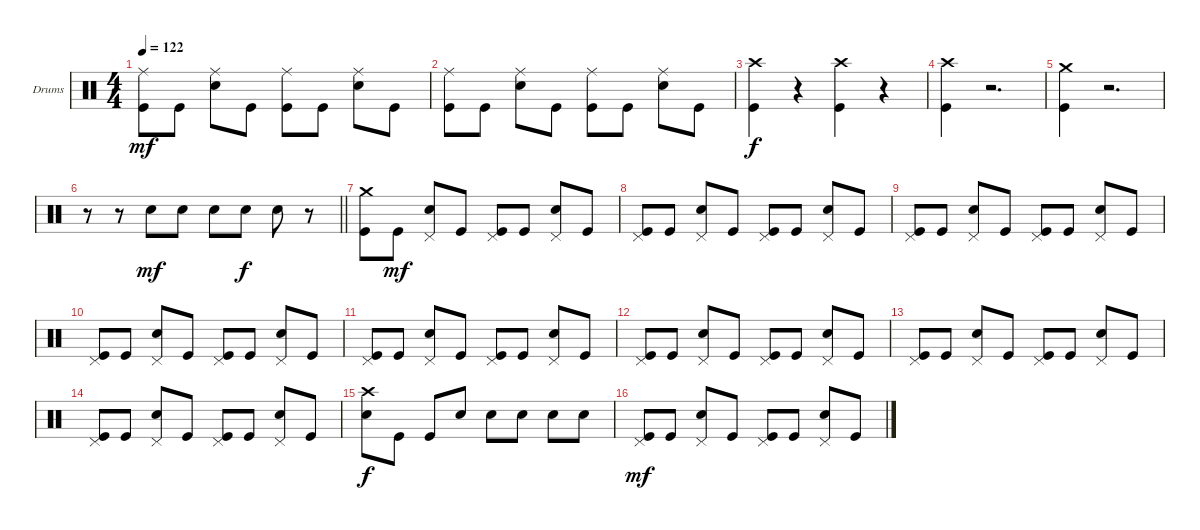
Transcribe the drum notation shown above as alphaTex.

\defaultSystemsLayout 4
\bracketExtendMode groupsimilarinstruments
\firstSystemTrackNameOrientation horizontal
\otherSystemsTrackNameOrientation horizontal
\track ("Drum" "Drums") {instrument percussion}
\staff {score}
\articulation defaults
\ts (4 4)
\tempo 122
\clef neutral
\ks c
("Kick (hit)" "Ride (middle)").8{dy mf} "Kick (hit)".8 ("Snare (hit) 2" "Ride (middle)").8 "Kick (hit)".8 ("Kick (hit)" "Ride (middle)").8 "Kick (hit)".8 ("Snare (hit) 2" "Ride (middle)").8 "Kick (hit)".8 |
("Kick (hit)" "Ride (middle)").8 "Kick (hit)".8 ("Snare (hit) 2" "Ride (middle)").8 "Kick (hit)".8 ("Kick (hit)" "Ride (middle)").8 "Kick (hit)".8 ("Snare (hit) 2" "Ride (middle)").8 "Kick (hit)".8 |
("Kick (hit)" "Crash high (hit)").4{dy f} r.4 ("Crash high (hit)" "Kick (hit)").4 r.4 |
("Kick (hit)" "Crash high (hit)").4 r.2{d} |
("Kick (hit)" "Crash medium (hit)").4 r.2{d} |
\barLineRight lightlight
r.8 r.8 "Snare (hit) 2".8{dy mf} "Snare (hit) 2".8 "Snare (hit) 2".8 "Snare (hit) 2".8{dy f} "Snare (hit) 2".8 r.8 |
("Kick (hit)" "Crash medium (hit)").8 "Kick (hit)".8{dy mf} ("Snare (hit) 2" "Pedal Hi-Hat (hit)").8 "Kick (hit)".8 ("Kick (hit)" "Pedal Hi-Hat (hit)").8 "Kick (hit)".8 ("Snare (hit) 2" "Pedal Hi-Hat (hit)").8 "Kick (hit)".8 |
("Kick (hit)" "Pedal Hi-Hat (hit)").8 "Kick (hit)".8 ("Snare (hit) 2" "Pedal Hi-Hat (hit)").8 "Kick (hit)".8 ("Kick (hit)" "Pedal Hi-Hat (hit)").8 "Kick (hit)".8 ("Snare (hit) 2" "Pedal Hi-Hat (hit)").8 "Kick (hit)".8 |
("Kick (hit)" "Pedal Hi-Hat (hit)").8 "Kick (hit)".8 ("Snare (hit) 2" "Pedal Hi-Hat (hit)").8 "Kick (hit)".8 ("Kick (hit)" "Pedal Hi-Hat (hit)").8 "Kick (hit)".8 ("Snare (hit) 2" "Pedal Hi-Hat (hit)").8 "Kick (hit)".8 |
("Kick (hit)" "Pedal Hi-Hat (hit)").8 "Kick (hit)".8 ("Snare (hit) 2" "Pedal Hi-Hat (hit)").8 "Kick (hit)".8 ("Kick (hit)" "Pedal Hi-Hat (hit)").8 "Kick (hit)".8 ("Snare (hit) 2" "Pedal Hi-Hat (hit)").8 "Kick (hit)".8 |
("Kick (hit)" "Pedal Hi-Hat (hit)").8 "Kick (hit)".8 ("Snare (hit) 2" "Pedal Hi-Hat (hit)").8 "Kick (hit)".8 ("Kick (hit)" "Pedal Hi-Hat (hit)").8 "Kick (hit)".8 ("Snare (hit) 2" "Pedal Hi-Hat (hit)").8 "Kick (hit)".8 |
("Kick (hit)" "Pedal Hi-Hat (hit)").8 "Kick (hit)".8 ("Snare (hit) 2" "Pedal Hi-Hat (hit)").8 "Kick (hit)".8 ("Kick (hit)" "Pedal Hi-Hat (hit)").8 "Kick (hit)".8 ("Snare (hit) 2" "Pedal Hi-Hat (hit)").8 "Kick (hit)".8 |
("Kick (hit)" "Pedal Hi-Hat (hit)").8 "Kick (hit)".8 ("Snare (hit) 2" "Pedal Hi-Hat (hit)").8 "Kick (hit)".8 ("Kick (hit)" "Pedal Hi-Hat (hit)").8 "Kick (hit)".8 ("Snare (hit) 2" "Pedal Hi-Hat (hit)").8 "Kick (hit)".8 |
("Kick (hit)" "Pedal Hi-Hat (hit)").8 "Kick (hit)".8 ("Snare (hit) 2" "Pedal Hi-Hat (hit)").8 "Kick (hit)".8 ("Kick (hit)" "Pedal Hi-Hat (hit)").8 "Kick (hit)".8 ("Snare (hit) 2" "Pedal Hi-Hat (hit)").8 "Kick (hit)".8 |
("Snare (hit) 2" "Crash high (hit)").8{dy f} "Kick (hit)".8 "Kick (hit)".8 "Snare (hit) 2".8 "Snare (hit) 2".8 "Snare (hit) 2".8 "Snare (hit) 2".8 "Snare (hit) 2".8 |
("Kick (hit)" "Pedal Hi-Hat (hit)").8{dy mf} "Kick (hit)".8 ("Snare (hit) 2" "Pedal Hi-Hat (hit)").8 "Kick (hit)".8 ("Kick (hit)" "Pedal Hi-Hat (hit)").8 "Kick (hit)".8 ("Snare (hit) 2" "Pedal Hi-Hat (hit)").8 "Kick (hit)".8
